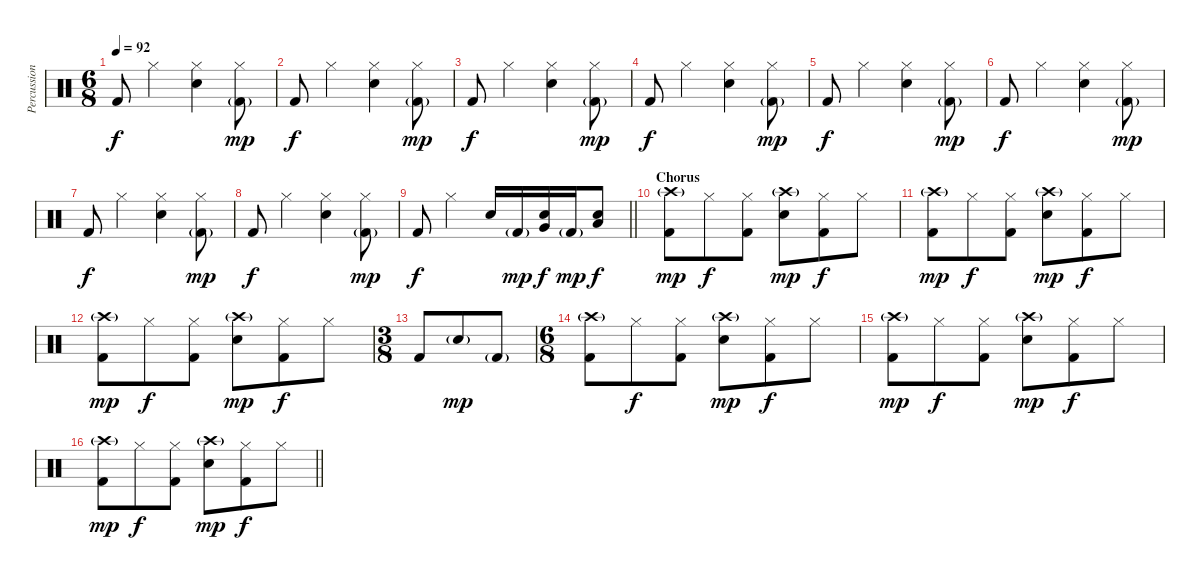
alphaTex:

\track ("Percussion" "Percussion") {instrument percussion}
\staff {score}
\articulation defaults
\ts (6 8)
\tempo 92
\clef neutral
\ks c "Kick (hit) 2".8{dy f} "Hi-Hat (closed)".4
("Hi-Hat (closed)" "Snare (hit) 2").4 ("Hi-Hat (closed)" "Kick (hit) 2"{g}).8{dy mp} |
"Kick (hit) 2".8{dy f} "Hi-Hat (closed)".4 ("Hi-Hat (closed)" "Snare (hit) 2").4 ("Hi-Hat (closed)" "Kick (hit) 2"{g}).8{dy mp} |
"Kick (hit) 2".8{dy f} "Hi-Hat (closed)".4 ("Hi-Hat (closed)" "Snare (hit) 2").4 ("Hi-Hat (closed)" "Kick (hit) 2"{g}).8{dy mp} |
"Kick (hit) 2".8{dy f} "Hi-Hat (closed)".4 ("Hi-Hat (closed)" "Snare (hit) 2").4 ("Hi-Hat (closed)" "Kick (hit) 2"{g}).8{dy mp} |
"Kick (hit) 2".8{dy f} "Hi-Hat (closed)".4 ("Hi-Hat (closed)" "Snare (hit) 2").4 ("Hi-Hat (closed)" "Kick (hit) 2"{g}).8{dy mp} |
"Kick (hit) 2".8{dy f} "Hi-Hat (closed)".4 ("Hi-Hat (closed)" "Snare (hit) 2").4 ("Hi-Hat (closed)" "Kick (hit) 2"{g}).8{dy mp} |
"Kick (hit) 2".8{dy f} "Hi-Hat (closed)".4 ("Hi-Hat (closed)" "Snare (hit) 2").4 ("Hi-Hat (closed)" "Kick (hit) 2"{g}).8{dy mp} |
"Kick (hit) 2".8{dy f} "Hi-Hat (closed)".4 ("Hi-Hat (closed)" "Snare (hit) 2").4 ("Hi-Hat (closed)" "Kick (hit) 2"{g}).8{dy mp} |
\barLineRight lightlight "Kick (hit) 2".8{dy f} "Hi-Hat (closed)".4 "Snare (hit) 2".16 "Kick (hit) 2"{g}.16{dy mp}
("Snare (hit) 2" "Very Low Tom (hit)").16{dy f} "Kick (hit) 2"{g}.16{dy mp} ("Snare (hit) 2" "Low Floor Tom (hit)").8{dy f} |
\section ("" "Chorus")
("Crash high (hit)"{g} "Kick (hit) 2").8{dy mp} "Hi-Hat (closed)".8{dy f} ("Hi-Hat (closed)" "Kick (hit) 2").8 ("Crash high (hit)"{g} "Snare (hit) 2").8{dy mp} ("Hi-Hat (closed)" "Kick (hit) 2").8{dy f} "Hi-Hat (closed)".8 |
("Crash high (hit)"{g} "Kick (hit) 2").8{dy mp} "Hi-Hat (closed)".8{dy f} ("Hi-Hat (closed)" "Kick (hit) 2").8 ("Crash high (hit)"{g} "Snare (hit) 2").8{dy mp} ("Hi-Hat (closed)" "Kick (hit) 2").8{dy f} "Hi-Hat (closed)".8 |
("Crash high (hit)"{g} "Kick (hit) 2").8{dy mp} "Hi-Hat (closed)".8{dy f} ("Hi-Hat (closed)" "Kick (hit) 2").8 ("Crash high (hit)"{g} "Snare (hit) 2").8{dy mp} ("Hi-Hat (closed)" "Kick (hit) 2").8{dy f} "Hi-Hat (closed)".8 |
\ts (3 8)
"Kick (hit) 2".8 "Snare (hit) 2"{g}.8{dy mp} "Kick (hit) 2"{g}.8 |
\ts (6 8)
("Crash high (hit)"{g} "Kick (hit) 2").8 "Hi-Hat (closed)".8{dy f} ("Hi-Hat (closed)" "Kick (hit) 2").8 ("Crash high (hit)"{g} "Snare (hit) 2").8{dy mp} ("Hi-Hat (closed)" "Kick (hit) 2").8{dy f} "Hi-Hat (closed)".8 |
("Crash high (hit)"{g} "Kick (hit) 2").8{dy mp} "Hi-Hat (closed)".8{dy f} ("Hi-Hat (closed)" "Kick (hit) 2").8 ("Crash high (hit)"{g} "Snare (hit) 2").8{dy mp} ("Hi-Hat (closed)" "Kick (hit) 2").8{dy f} "Hi-Hat (closed)".8 |
\barLineRight lightlight
("Crash high (hit)"{g} "Kick (hit) 2").8{dy mp} "Hi-Hat (closed)".8{dy f} ("Hi-Hat (closed)" "Kick (hit) 2").8 ("Crash high (hit)"{g} "Snare (hit) 2").8{dy mp} ("Hi-Hat (closed)" "Kick (hit) 2").8{dy f} "Hi-Hat (closed)".8
